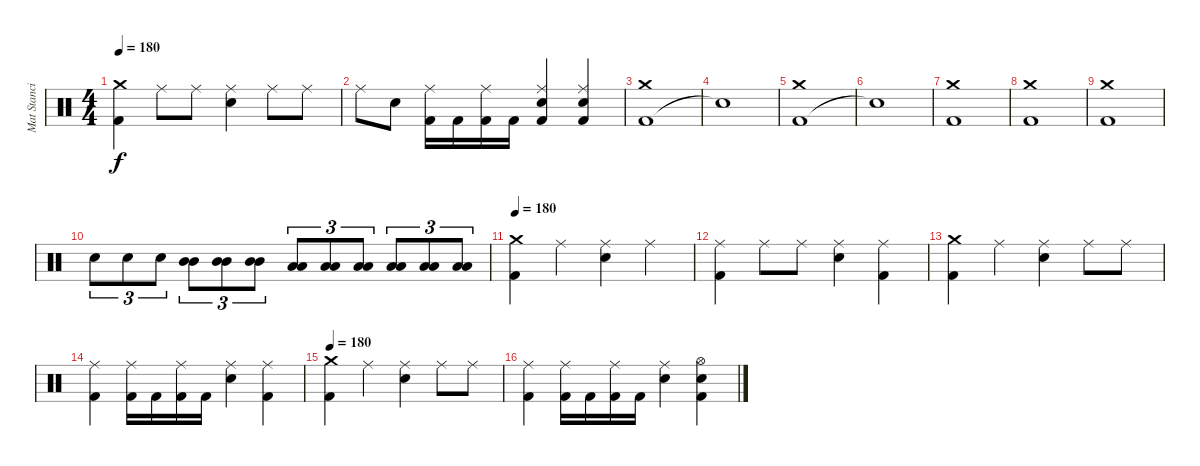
\track ("Mat Stancioiu" "Mat Stanci") {instrument percussion}
\staff {score}
\articulation defaults
\ts (4 4)
\tempo 180
\clef neutral
\ks c
("Kick (hit) 2" "Crash medium (hit)").4{dy f} "Ride (middle)".8 "Ride (middle)".8 ("Electric Snare (hit)" "Ride (middle)").4 "Ride (middle)".8 "Ride (middle)".8 |
"Ride (middle)".8 "Electric Snare (hit)".8 ("Kick (hit) 2" "Ride (middle)").16 "Kick (hit) 2".16 ("Kick (hit) 2" "Ride (middle)").16 "Kick (hit) 2".16 ("Kick (hit) 2" "Ride (middle)" "Electric Snare (hit)").4 ("Kick (hit) 2" "Ride (middle)" "Electric Snare (hit)").4 |
("Kick (hit) 2" "Crash medium (hit)").1 |
"Snare (hit)"{t}.1 |
("Kick (hit) 2" "Crash medium (hit)").1 |
"Snare (hit)"{t}.1 |
("Kick (hit) 2" "Crash medium (hit)").1 |
("Kick (hit) 2" "Crash medium (hit)").1 |
("Kick (hit) 2" "Crash medium (hit)").1 |
"Electric Snare (hit)".8{tu (3 2)} "Electric Snare (hit)".8{tu (3 2)} "Electric Snare (hit)".8{tu (3 2)} ("Mid Tom (hit)" "Mid Tom (hit)").8{tu (3 2)} ("Mid Tom (hit)" "Mid Tom (hit)").8{tu (3 2)} ("Mid Tom (hit)" "Mid Tom (hit)").8{tu (3 2)} ("Low Tom (hit)" "Low Tom (hit)").8{tu (3 2)} ("Low Tom (hit)" "Low Tom (hit)").8{tu (3 2)} ("Low Tom (hit)" "Low Tom (hit)").8{tu (3 2)} ("Low Floor Tom (hit)" "Low Floor Tom (hit)").8{tu (3 2)} ("Low Floor Tom (hit)" "Low Floor Tom (hit)").8{tu (3 2)} ("Low Floor Tom (hit)" "Low Floor Tom (hit)").8{tu (3 2)} |
\tempo 180
("Kick (hit) 2" "Crash medium (hit)").4 "Ride (middle)".4 ("Electric Snare (hit)" "Ride (middle)").4 "Ride (middle)".4 |
("Kick (hit) 2" "Ride (middle)").4 "Ride (middle)".8 "Ride (middle)".8 ("Electric Snare (hit)" "Ride (middle)").4 ("Kick (hit) 2" "Ride (middle)").4 |
("Kick (hit) 2" "Crash medium (hit)").4 "Ride (middle)".4 ("Electric Snare (hit)" "Ride (middle)").4 "Ride (middle)".8 "Ride (middle)".8 |
("Kick (hit) 2" "Ride (middle)").4 ("Kick (hit) 2" "Ride (middle)").16 "Kick (hit) 2".16 ("Kick (hit) 2" "Ride (middle)").16 "Kick (hit) 2".16 ("Electric Snare (hit)" "Ride (middle)").4 ("Kick (hit) 2" "Ride (middle)").4 |
\tempo 180
("Kick (hit) 2" "Crash medium (hit)").4 "Ride (middle)".4 ("Electric Snare (hit)" "Ride (middle)").4 "Ride (middle)".8 "Ride (middle)".8 |
("Kick (hit) 2" "Ride (middle)").4 ("Kick (hit) 2" "Ride (middle)").16 "Kick (hit) 2".16 ("Kick (hit) 2" "Ride (middle)").16 "Kick (hit) 2".16 ("Electric Snare (hit)" "Ride (middle)").4 ("Kick (hit) 2" "Electric Snare (hit)" "Hi-Hat (open)").4
